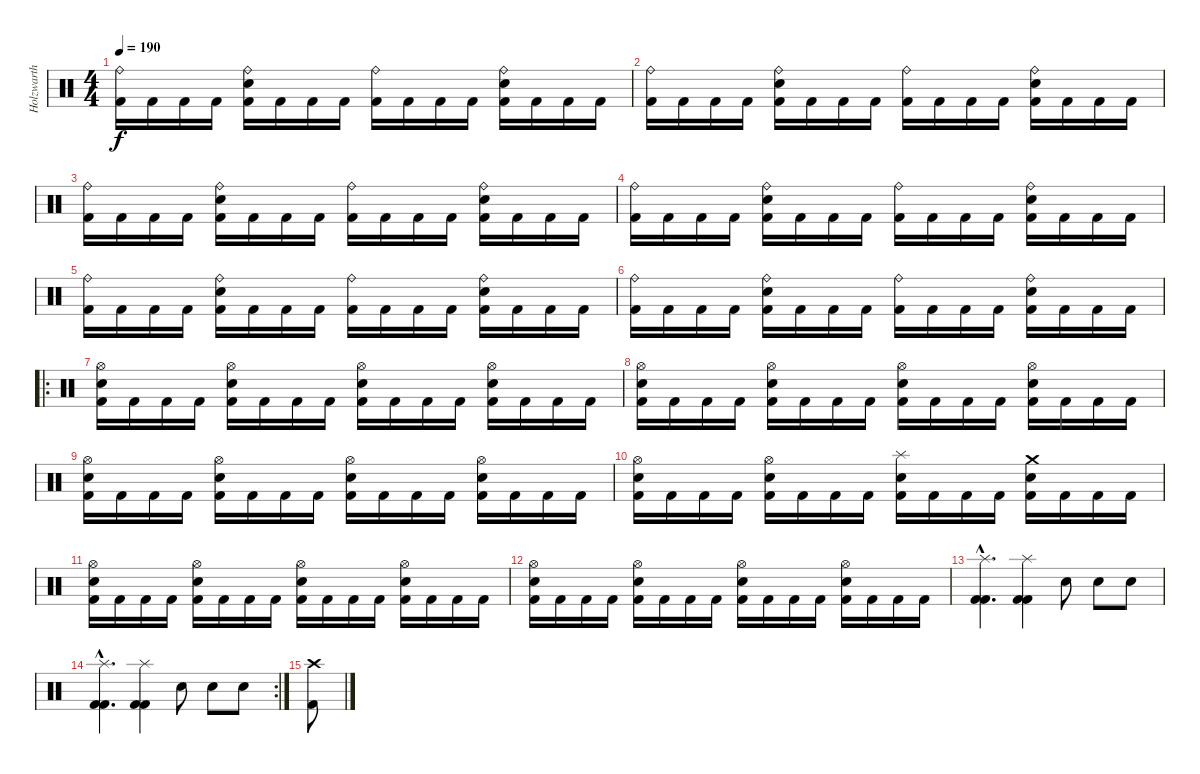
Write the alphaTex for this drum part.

\track ("Holzwarth" "Holzwarth") {instrument percussion}
\staff {score}
\articulation defaults
\ts (4 4)
\tempo 190
\clef neutral
\ks c
("Ride (bell)" "Kick (hit) 2").16{dy f} "Kick (hit) 2".16 "Kick (hit) 2".16 "Kick (hit) 2".16 ("Ride (bell)" "Snare (hit) 2" "Kick (hit) 2").16 "Kick (hit) 2".16 "Kick (hit) 2".16 "Kick (hit) 2".16 ("Ride (bell)" "Kick (hit) 2").16 "Kick (hit) 2".16 "Kick (hit) 2".16 "Kick (hit) 2".16 ("Ride (bell)" "Snare (hit) 2" "Kick (hit) 2").16 "Kick (hit) 2".16 "Kick (hit) 2".16 "Kick (hit) 2".16 |
("Ride (bell)" "Kick (hit) 2").16 "Kick (hit) 2".16 "Kick (hit) 2".16 "Kick (hit) 2".16 ("Ride (bell)" "Snare (hit) 2" "Kick (hit) 2").16 "Kick (hit) 2".16 "Kick (hit) 2".16 "Kick (hit) 2".16 ("Ride (bell)" "Kick (hit) 2").16 "Kick (hit) 2".16 "Kick (hit) 2".16 "Kick (hit) 2".16 ("Ride (bell)" "Snare (hit) 2" "Kick (hit) 2").16 "Kick (hit) 2".16 "Kick (hit) 2".16 "Kick (hit) 2".16 |
("Ride (bell)" "Kick (hit) 2").16 "Kick (hit) 2".16 "Kick (hit) 2".16 "Kick (hit) 2".16 ("Ride (bell)" "Snare (hit) 2" "Kick (hit) 2").16 "Kick (hit) 2".16 "Kick (hit) 2".16 "Kick (hit) 2".16 ("Ride (bell)" "Kick (hit) 2").16 "Kick (hit) 2".16 "Kick (hit) 2".16 "Kick (hit) 2".16 ("Ride (bell)" "Snare (hit) 2" "Kick (hit) 2").16 "Kick (hit) 2".16 "Kick (hit) 2".16 "Kick (hit) 2".16 |
("Ride (bell)" "Kick (hit) 2").16 "Kick (hit) 2".16 "Kick (hit) 2".16 "Kick (hit) 2".16 ("Ride (bell)" "Snare (hit) 2" "Kick (hit) 2").16 "Kick (hit) 2".16 "Kick (hit) 2".16 "Kick (hit) 2".16 ("Ride (bell)" "Kick (hit) 2").16 "Kick (hit) 2".16 "Kick (hit) 2".16 "Kick (hit) 2".16 ("Ride (bell)" "Snare (hit) 2" "Kick (hit) 2").16 "Kick (hit) 2".16 "Kick (hit) 2".16 "Kick (hit) 2".16 |
("Ride (bell)" "Kick (hit) 2").16 "Kick (hit) 2".16 "Kick (hit) 2".16 "Kick (hit) 2".16 ("Ride (bell)" "Snare (hit) 2" "Kick (hit) 2").16 "Kick (hit) 2".16 "Kick (hit) 2".16 "Kick (hit) 2".16 ("Ride (bell)" "Kick (hit) 2").16 "Kick (hit) 2".16 "Kick (hit) 2".16 "Kick (hit) 2".16 ("Ride (bell)" "Snare (hit) 2" "Kick (hit) 2").16 "Kick (hit) 2".16 "Kick (hit) 2".16 "Kick (hit) 2".16 |
("Ride (bell)" "Kick (hit) 2").16 "Kick (hit) 2".16 "Kick (hit) 2".16 "Kick (hit) 2".16 ("Ride (bell)" "Snare (hit) 2" "Kick (hit) 2").16 "Kick (hit) 2".16 "Kick (hit) 2".16 "Kick (hit) 2".16 ("Ride (bell)" "Kick (hit) 2").16 "Kick (hit) 2".16 "Kick (hit) 2".16 "Kick (hit) 2".16 ("Ride (bell)" "Snare (hit) 2" "Kick (hit) 2").16 "Kick (hit) 2".16 "Kick (hit) 2".16 "Kick (hit) 2".16 |
\ro
("Hi-Hat (open)" "Snare (hit) 2" "Kick (hit) 2").16 "Kick (hit) 2".16 "Kick (hit) 2".16 "Kick (hit) 2".16 ("Hi-Hat (open)" "Snare (hit) 2" "Kick (hit) 2").16 "Kick (hit) 2".16 "Kick (hit) 2".16 "Kick (hit) 2".16 ("Hi-Hat (open)" "Snare (hit) 2" "Kick (hit) 2").16 "Kick (hit) 2".16 "Kick (hit) 2".16 "Kick (hit) 2".16 ("Hi-Hat (open)" "Snare (hit) 2" "Kick (hit) 2").16 "Kick (hit) 2".16 "Kick (hit) 2".16 "Kick (hit) 2".16 |
("Hi-Hat (open)" "Snare (hit) 2" "Kick (hit) 2").16 "Kick (hit) 2".16 "Kick (hit) 2".16 "Kick (hit) 2".16 ("Hi-Hat (open)" "Snare (hit) 2" "Kick (hit) 2").16 "Kick (hit) 2".16 "Kick (hit) 2".16 "Kick (hit) 2".16 ("Hi-Hat (open)" "Snare (hit) 2" "Kick (hit) 2").16 "Kick (hit) 2".16 "Kick (hit) 2".16 "Kick (hit) 2".16 ("Hi-Hat (open)" "Snare (hit) 2" "Kick (hit) 2").16 "Kick (hit) 2".16 "Kick (hit) 2".16 "Kick (hit) 2".16 |
("Hi-Hat (open)" "Snare (hit) 2" "Kick (hit) 2").16 "Kick (hit) 2".16 "Kick (hit) 2".16 "Kick (hit) 2".16 ("Hi-Hat (open)" "Snare (hit) 2" "Kick (hit) 2").16 "Kick (hit) 2".16 "Kick (hit) 2".16 "Kick (hit) 2".16 ("Hi-Hat (open)" "Snare (hit) 2" "Kick (hit) 2").16 "Kick (hit) 2".16 "Kick (hit) 2".16 "Kick (hit) 2".16 ("Hi-Hat (open)" "Snare (hit) 2" "Kick (hit) 2").16 "Kick (hit) 2".16 "Kick (hit) 2".16 "Kick (hit) 2".16 |
("Hi-Hat (open)" "Snare (hit) 2" "Kick (hit) 2").16 "Kick (hit) 2".16 "Kick (hit) 2".16 "Kick (hit) 2".16 ("Hi-Hat (open)" "Snare (hit) 2" "Kick (hit) 2").16 "Kick (hit) 2".16 "Kick (hit) 2".16 "Kick (hit) 2".16 ("Splash (hit)" "Snare (hit) 2" "Kick (hit) 2").16 "Kick (hit) 2".16 "Kick (hit) 2".16 "Kick (hit) 2".16 ("Crash medium (hit)" "Snare (hit) 2" "Kick (hit) 2").16 "Kick (hit) 2".16 "Kick (hit) 2".16 "Kick (hit) 2".16 |
("Hi-Hat (open)" "Snare (hit) 2" "Kick (hit) 2").16 "Kick (hit) 2".16 "Kick (hit) 2".16 "Kick (hit) 2".16 ("Hi-Hat (open)" "Snare (hit) 2" "Kick (hit) 2").16 "Kick (hit) 2".16 "Kick (hit) 2".16 "Kick (hit) 2".16 ("Hi-Hat (open)" "Snare (hit) 2" "Kick (hit) 2").16 "Kick (hit) 2".16 "Kick (hit) 2".16 "Kick (hit) 2".16 ("Hi-Hat (open)" "Snare (hit) 2" "Kick (hit) 2").16 "Kick (hit) 2".16 "Kick (hit) 2".16 "Kick (hit) 2".16 |
("Hi-Hat (open)" "Snare (hit) 2" "Kick (hit) 2").16 "Kick (hit) 2".16 "Kick (hit) 2".16 "Kick (hit) 2".16 ("Hi-Hat (open)" "Snare (hit) 2" "Kick (hit) 2").16 "Kick (hit) 2".16 "Kick (hit) 2".16 "Kick (hit) 2".16 ("Hi-Hat (open)" "Snare (hit) 2" "Kick (hit) 2").16 "Kick (hit) 2".16 "Kick (hit) 2".16 "Kick (hit) 2".16 ("Hi-Hat (open)" "Snare (hit) 2" "Kick (hit) 2").16 "Kick (hit) 2".16 "Kick (hit) 2".16 "Kick (hit) 2".16 |
("Splash (hit)"{hac} "Kick (hit) 2"{hac} "Kick (hit) 2"{hac}).4{d} ("Splash (hit)" "Kick (hit) 2" "Kick (hit) 2").4 "Snare (hit) 2".8 "Snare (hit) 2".8 "Snare (hit) 2".8 |
\rc 2
("Splash (hit)"{hac} "Kick (hit) 2"{hac} "Kick (hit) 2"{hac}).4{d} ("Splash (hit)" "Kick (hit) 2" "Kick (hit) 2").4 "Snare (hit) 2".8 "Snare (hit) 2".8 "Snare (hit) 2".8 |
("Crash high (hit)" "Kick (hit) 2").8
